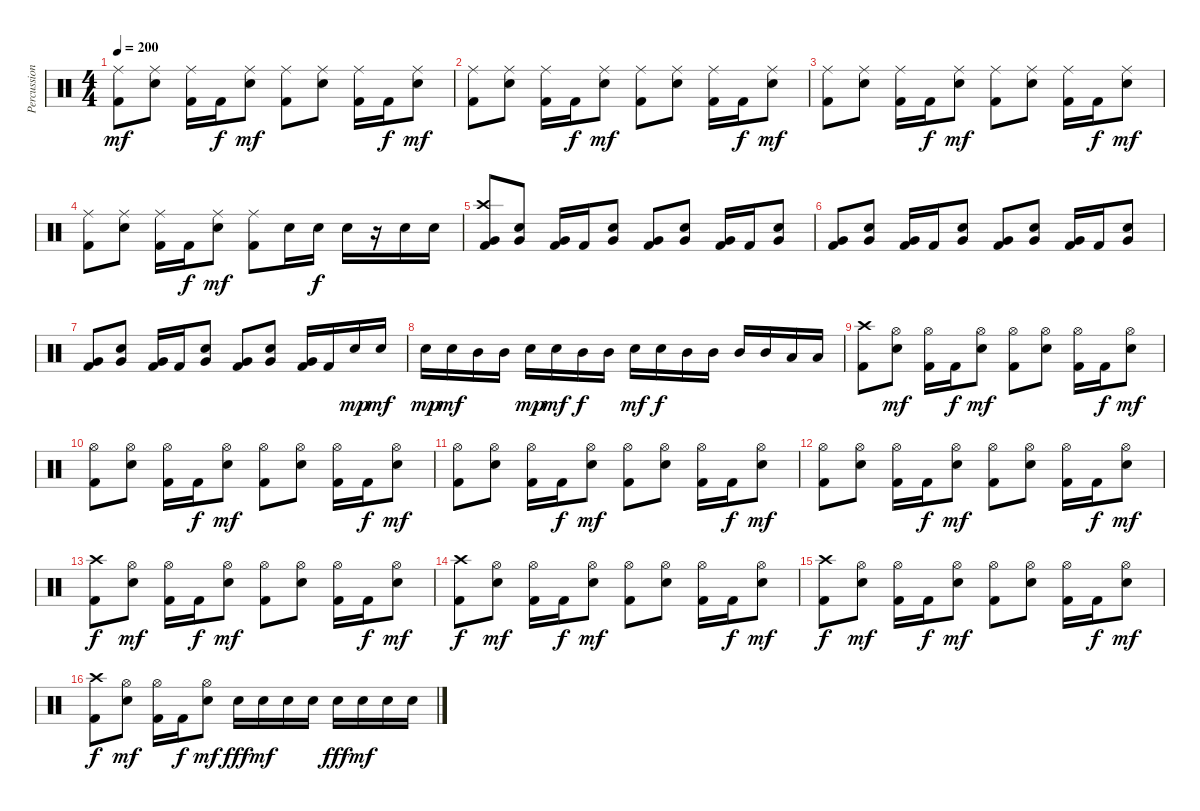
\track ("Percussions" "Percussion") {instrument percussion}
\staff {score}
\articulation defaults
\ts (4 4)
\tempo 200
\clef neutral
\ks c
("Ride (middle)" "Kick (hit) 2").8{dy mf} ("Ride (middle)" "Snare (hit) 2").8 ("Ride (middle)" "Kick (hit) 2").16 "Kick (hit) 2".16{dy f} ("Ride (middle)" "Snare (hit) 2").8{dy mf} ("Ride (middle)" "Kick (hit) 2").8 ("Ride (middle)" "Snare (hit) 2").8 ("Ride (middle)" "Kick (hit) 2").16 "Kick (hit) 2".16{dy f} ("Ride (middle)" "Snare (hit) 2").8{dy mf} |
("Ride (middle)" "Kick (hit) 2").8 ("Ride (middle)" "Snare (hit) 2").8 ("Ride (middle)" "Kick (hit) 2").16 "Kick (hit) 2".16{dy f} ("Ride (middle)" "Snare (hit) 2").8{dy mf} ("Ride (middle)" "Kick (hit) 2").8 ("Ride (middle)" "Snare (hit) 2").8 ("Ride (middle)" "Kick (hit) 2").16 "Kick (hit) 2".16{dy f} ("Ride (middle)" "Snare (hit) 2").8{dy mf} |
("Ride (middle)" "Kick (hit) 2").8 ("Ride (middle)" "Snare (hit) 2").8 ("Ride (middle)" "Kick (hit) 2").16 "Kick (hit) 2".16{dy f} ("Ride (middle)" "Snare (hit) 2").8{dy mf} ("Ride (middle)" "Kick (hit) 2").8 ("Ride (middle)" "Snare (hit) 2").8 ("Ride (middle)" "Kick (hit) 2").16 "Kick (hit) 2".16{dy f} ("Ride (middle)" "Snare (hit) 2").8{dy mf} |
("Ride (middle)" "Kick (hit) 2").8 ("Ride (middle)" "Snare (hit) 2").8 ("Ride (middle)" "Kick (hit) 2").16 "Kick (hit) 2".16{dy f} ("Ride (middle)" "Snare (hit) 2").8{dy mf} ("Ride (middle)" "Kick (hit) 2").8 "Snare (hit) 2".16 "Snare (hit) 2".16{dy f} "Snare (hit) 2".16 r.16 "Snare (hit) 2".16 "Snare (hit) 2".16 |
("Crash high (hit)" "Very Low Tom (hit)" "Kick (hit) 2").8 ("Very Low Tom (hit)" "Snare (hit) 2").8 ("Very Low Tom (hit)" "Kick (hit) 2").16 "Kick (hit) 2".16 ("Very Low Tom (hit)" "Snare (hit) 2").8 ("Very Low Tom (hit)" "Kick (hit) 2").8 ("Very Low Tom (hit)" "Snare (hit) 2").8 ("Very Low Tom (hit)" "Kick (hit) 2").16 "Kick (hit) 2".16 ("Very Low Tom (hit)" "Snare (hit) 2").8 |
("Very Low Tom (hit)" "Kick (hit) 2").8 ("Very Low Tom (hit)" "Snare (hit) 2").8 ("Very Low Tom (hit)" "Kick (hit) 2").16 "Kick (hit) 2".16 ("Very Low Tom (hit)" "Snare (hit) 2").8 ("Very Low Tom (hit)" "Kick (hit) 2").8 ("Very Low Tom (hit)" "Snare (hit) 2").8 ("Very Low Tom (hit)" "Kick (hit) 2").16 "Kick (hit) 2".16 ("Very Low Tom (hit)" "Snare (hit) 2").8 |
("Very Low Tom (hit)" "Kick (hit) 2").8 ("Very Low Tom (hit)" "Snare (hit) 2").8 ("Very Low Tom (hit)" "Kick (hit) 2").16 "Kick (hit) 2".16 ("Very Low Tom (hit)" "Snare (hit) 2").8 ("Very Low Tom (hit)" "Kick (hit) 2").8 ("Very Low Tom (hit)" "Snare (hit) 2").8 ("Very Low Tom (hit)" "Kick (hit) 2").16 "Kick (hit) 2".16 "Snare (hit) 2".16{dy mp} "Snare (hit) 2".16{dy mf} |
"Snare (hit) 2".16{dy mp} "Snare (hit) 2".16{dy mf} "Mid Tom (hit)".16 "Mid Tom (hit)".16 "Snare (hit) 2".16{dy mp} "Snare (hit) 2".16{dy mf} "Mid Tom (hit)".16{dy f} "Mid Tom (hit)".16 "Snare (hit) 2".16{dy mf} "Snare (hit) 2".16{dy f} "Mid Tom (hit)".16 "Mid Tom (hit)".16 "Mid Tom (hit)".16 "Mid Tom (hit)".16 "Low Tom (hit)".16 "Low Tom (hit)".16 |
("Crash high (hit)" "Kick (hit) 2").8 ("Hi-Hat (open)" "Snare (hit) 2").8{dy mf} ("Hi-Hat (open)" "Kick (hit) 2").16 "Kick (hit) 2".16{dy f} ("Hi-Hat (open)" "Snare (hit) 2").8{dy mf} ("Hi-Hat (open)" "Kick (hit) 2").8 ("Hi-Hat (open)" "Snare (hit) 2").8 ("Hi-Hat (open)" "Kick (hit) 2").16 "Kick (hit) 2".16{dy f} ("Hi-Hat (open)" "Snare (hit) 2").8{dy mf} |
("Hi-Hat (open)" "Kick (hit) 2").8 ("Hi-Hat (open)" "Snare (hit) 2").8 ("Hi-Hat (open)" "Kick (hit) 2").16 "Kick (hit) 2".16{dy f} ("Hi-Hat (open)" "Snare (hit) 2").8{dy mf} ("Hi-Hat (open)" "Kick (hit) 2").8 ("Hi-Hat (open)" "Snare (hit) 2").8 ("Hi-Hat (open)" "Kick (hit) 2").16 "Kick (hit) 2".16{dy f} ("Hi-Hat (open)" "Snare (hit) 2").8{dy mf} |
("Hi-Hat (open)" "Kick (hit) 2").8 ("Hi-Hat (open)" "Snare (hit) 2").8 ("Hi-Hat (open)" "Kick (hit) 2").16 "Kick (hit) 2".16{dy f} ("Hi-Hat (open)" "Snare (hit) 2").8{dy mf} ("Hi-Hat (open)" "Kick (hit) 2").8 ("Hi-Hat (open)" "Snare (hit) 2").8 ("Hi-Hat (open)" "Kick (hit) 2").16 "Kick (hit) 2".16{dy f} ("Hi-Hat (open)" "Snare (hit) 2").8{dy mf} |
("Hi-Hat (open)" "Kick (hit) 2").8 ("Hi-Hat (open)" "Snare (hit) 2").8 ("Hi-Hat (open)" "Kick (hit) 2").16 "Kick (hit) 2".16{dy f} ("Hi-Hat (open)" "Snare (hit) 2").8{dy mf} ("Hi-Hat (open)" "Kick (hit) 2").8 ("Hi-Hat (open)" "Snare (hit) 2").8 ("Hi-Hat (open)" "Kick (hit) 2").16 "Kick (hit) 2".16{dy f} ("Hi-Hat (open)" "Snare (hit) 2").8{dy mf} |
("Crash high (hit)" "Kick (hit) 2").8{dy f} ("Hi-Hat (open)" "Snare (hit) 2").8{dy mf} ("Hi-Hat (open)" "Kick (hit) 2").16 "Kick (hit) 2".16{dy f} ("Hi-Hat (open)" "Snare (hit) 2").8{dy mf} ("Hi-Hat (open)" "Kick (hit) 2").8 ("Hi-Hat (open)" "Snare (hit) 2").8 ("Hi-Hat (open)" "Kick (hit) 2").16 "Kick (hit) 2".16{dy f} ("Hi-Hat (open)" "Snare (hit) 2").8{dy mf} |
("Crash high (hit)" "Kick (hit) 2").8{dy f} ("Hi-Hat (open)" "Snare (hit) 2").8{dy mf} ("Hi-Hat (open)" "Kick (hit) 2").16 "Kick (hit) 2".16{dy f} ("Hi-Hat (open)" "Snare (hit) 2").8{dy mf} ("Hi-Hat (open)" "Kick (hit) 2").8 ("Hi-Hat (open)" "Snare (hit) 2").8 ("Hi-Hat (open)" "Kick (hit) 2").16 "Kick (hit) 2".16{dy f} ("Hi-Hat (open)" "Snare (hit) 2").8{dy mf} |
("Crash high (hit)" "Kick (hit) 2").8{dy f} ("Hi-Hat (open)" "Snare (hit) 2").8{dy mf} ("Hi-Hat (open)" "Kick (hit) 2").16 "Kick (hit) 2".16{dy f} ("Hi-Hat (open)" "Snare (hit) 2").8{dy mf} ("Hi-Hat (open)" "Kick (hit) 2").8 ("Hi-Hat (open)" "Snare (hit) 2").8 ("Hi-Hat (open)" "Kick (hit) 2").16 "Kick (hit) 2".16{dy f} ("Hi-Hat (open)" "Snare (hit) 2").8{dy mf} |
("Crash high (hit)" "Kick (hit) 2").8{dy f} ("Hi-Hat (open)" "Snare (hit) 2").8{dy mf} ("Hi-Hat (open)" "Kick (hit) 2").16 "Kick (hit) 2".16{dy f} ("Hi-Hat (open)" "Snare (hit) 2").8{dy mf} "Snare (hit) 2".16{dy fff} "Snare (hit) 2".16{dy mf} "Snare (hit) 2".16 "Snare (hit) 2".16 "Snare (hit) 2".16{dy fff} "Snare (hit) 2".16{dy mf} "Snare (hit) 2".16 "Snare (hit) 2".16
